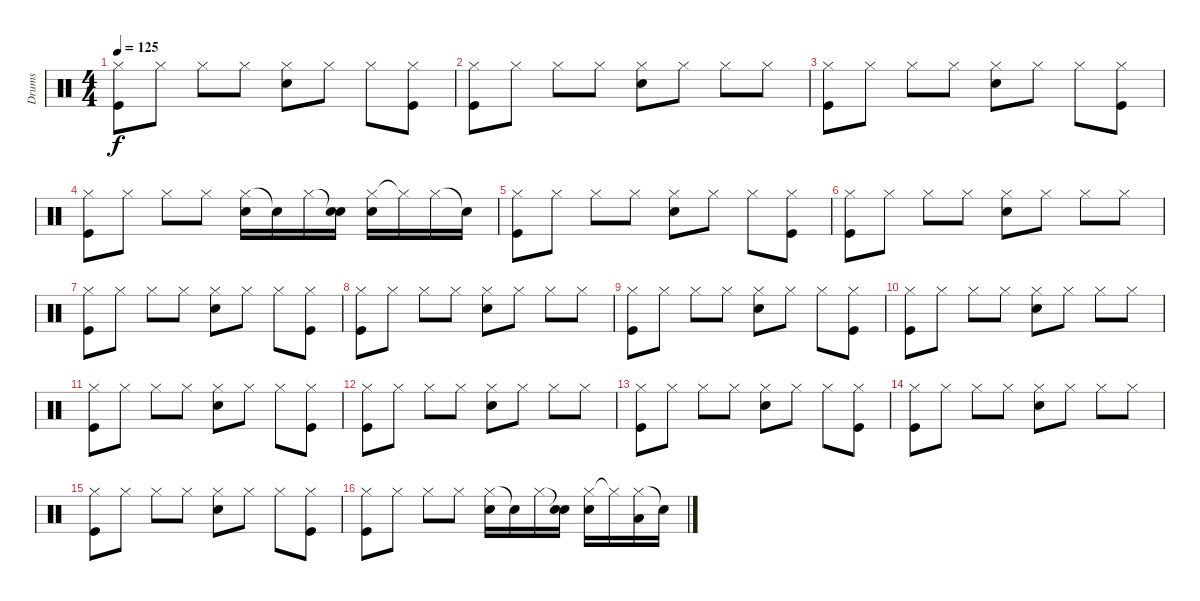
\track ("Drums" "Drums") {instrument percussion}
\staff {score}
\articulation defaults
\ts (4 4)
\tempo 125
\clef neutral
\ks c
("Hi-Hat (closed)" "Kick (hit)").8{dy f} "Hi-Hat (closed)".8 "Hi-Hat (closed)".8 "Hi-Hat (closed)".8 ("Hi-Hat (closed)" "Snare (hit) 2").8 "Hi-Hat (closed)".8 "Hi-Hat (closed)".8 ("Hi-Hat (closed)" "Kick (hit)").8 |
("Hi-Hat (closed)" "Kick (hit)").8 "Hi-Hat (closed)".8 "Hi-Hat (closed)".8 "Hi-Hat (closed)".8 ("Hi-Hat (closed)" "Snare (hit) 2").8 "Hi-Hat (closed)".8 "Hi-Hat (closed)".8 "Hi-Hat (closed)".8 |
("Hi-Hat (closed)" "Kick (hit)").8 "Hi-Hat (closed)".8 "Hi-Hat (closed)".8 "Hi-Hat (closed)".8 ("Hi-Hat (closed)" "Snare (hit) 2").8 "Hi-Hat (closed)".8 "Hi-Hat (closed)".8 ("Hi-Hat (closed)" "Kick (hit)").8 |
("Hi-Hat (closed)" "Kick (hit)").8 "Hi-Hat (closed)".8 "Hi-Hat (closed)".8 "Hi-Hat (closed)".8 ("Hi-Hat (closed)" "Snare (hit) 2").16 "Snare (hit)"{t}.16 "Hi-Hat (closed)".16 ("Snare (hit)"{t} "Snare (hit) 2").16 ("Hi-Hat (closed)" "Snare (hit) 2").16 "Hi-Hat (closed)"{t}.16 "Hi-Hat (closed)".16 "Snare (hit)"{t}.16 |
("Hi-Hat (closed)" "Kick (hit)").8 "Hi-Hat (closed)".8 "Hi-Hat (closed)".8 "Hi-Hat (closed)".8 ("Hi-Hat (closed)" "Snare (hit) 2").8 "Hi-Hat (closed)".8 "Hi-Hat (closed)".8 ("Hi-Hat (closed)" "Kick (hit)").8 |
("Hi-Hat (closed)" "Kick (hit)").8 "Hi-Hat (closed)".8 "Hi-Hat (closed)".8 "Hi-Hat (closed)".8 ("Hi-Hat (closed)" "Snare (hit) 2").8 "Hi-Hat (closed)".8 "Hi-Hat (closed)".8 "Hi-Hat (closed)".8 |
("Hi-Hat (closed)" "Kick (hit)").8 "Hi-Hat (closed)".8 "Hi-Hat (closed)".8 "Hi-Hat (closed)".8 ("Hi-Hat (closed)" "Snare (hit) 2").8 "Hi-Hat (closed)".8 "Hi-Hat (closed)".8 ("Hi-Hat (closed)" "Kick (hit)").8 |
("Hi-Hat (closed)" "Kick (hit)").8 "Hi-Hat (closed)".8 "Hi-Hat (closed)".8 "Hi-Hat (closed)".8 ("Hi-Hat (closed)" "Snare (hit) 2").8 "Hi-Hat (closed)".8 "Hi-Hat (closed)".8 "Hi-Hat (closed)".8 |
("Hi-Hat (closed)" "Kick (hit)").8 "Hi-Hat (closed)".8 "Hi-Hat (closed)".8 "Hi-Hat (closed)".8 ("Hi-Hat (closed)" "Snare (hit) 2").8 "Hi-Hat (closed)".8 "Hi-Hat (closed)".8 ("Hi-Hat (closed)" "Kick (hit)").8 |
("Hi-Hat (closed)" "Kick (hit)").8 "Hi-Hat (closed)".8 "Hi-Hat (closed)".8 "Hi-Hat (closed)".8 ("Hi-Hat (closed)" "Snare (hit) 2").8 "Hi-Hat (closed)".8 "Hi-Hat (closed)".8 "Hi-Hat (closed)".8 |
("Hi-Hat (closed)" "Kick (hit)").8 "Hi-Hat (closed)".8 "Hi-Hat (closed)".8 "Hi-Hat (closed)".8 ("Hi-Hat (closed)" "Snare (hit) 2").8 "Hi-Hat (closed)".8 "Hi-Hat (closed)".8 ("Hi-Hat (closed)" "Kick (hit)").8 |
("Hi-Hat (closed)" "Kick (hit)").8 "Hi-Hat (closed)".8 "Hi-Hat (closed)".8 "Hi-Hat (closed)".8 ("Hi-Hat (closed)" "Snare (hit) 2").8 "Hi-Hat (closed)".8 "Hi-Hat (closed)".8 "Hi-Hat (closed)".8 |
("Hi-Hat (closed)" "Kick (hit)").8 "Hi-Hat (closed)".8 "Hi-Hat (closed)".8 "Hi-Hat (closed)".8 ("Hi-Hat (closed)" "Snare (hit) 2").8 "Hi-Hat (closed)".8 "Hi-Hat (closed)".8 ("Hi-Hat (closed)" "Kick (hit)").8 |
("Hi-Hat (closed)" "Kick (hit)").8 "Hi-Hat (closed)".8 "Hi-Hat (closed)".8 "Hi-Hat (closed)".8 ("Hi-Hat (closed)" "Snare (hit) 2").8 "Hi-Hat (closed)".8 "Hi-Hat (closed)".8 "Hi-Hat (closed)".8 |
("Hi-Hat (closed)" "Kick (hit)").8 "Hi-Hat (closed)".8 "Hi-Hat (closed)".8 "Hi-Hat (closed)".8 ("Hi-Hat (closed)" "Snare (hit) 2").8 "Hi-Hat (closed)".8 "Hi-Hat (closed)".8 ("Hi-Hat (closed)" "Kick (hit)").8 |
("Hi-Hat (closed)" "Kick (hit)").8 "Hi-Hat (closed)".8 "Hi-Hat (closed)".8 "Hi-Hat (closed)".8 ("Hi-Hat (closed)" "Snare (hit) 2").16 "Snare (hit)"{t}.16 "Hi-Hat (closed)".16 ("Snare (hit)"{t} "Snare (hit) 2").16 ("Hi-Hat (closed)" "Snare (hit) 2").16 "Hi-Hat (closed)"{t}.16 ("Hi-Hat (closed)" "Low Tom (hit)").16 "Snare (hit)"{t}.16
